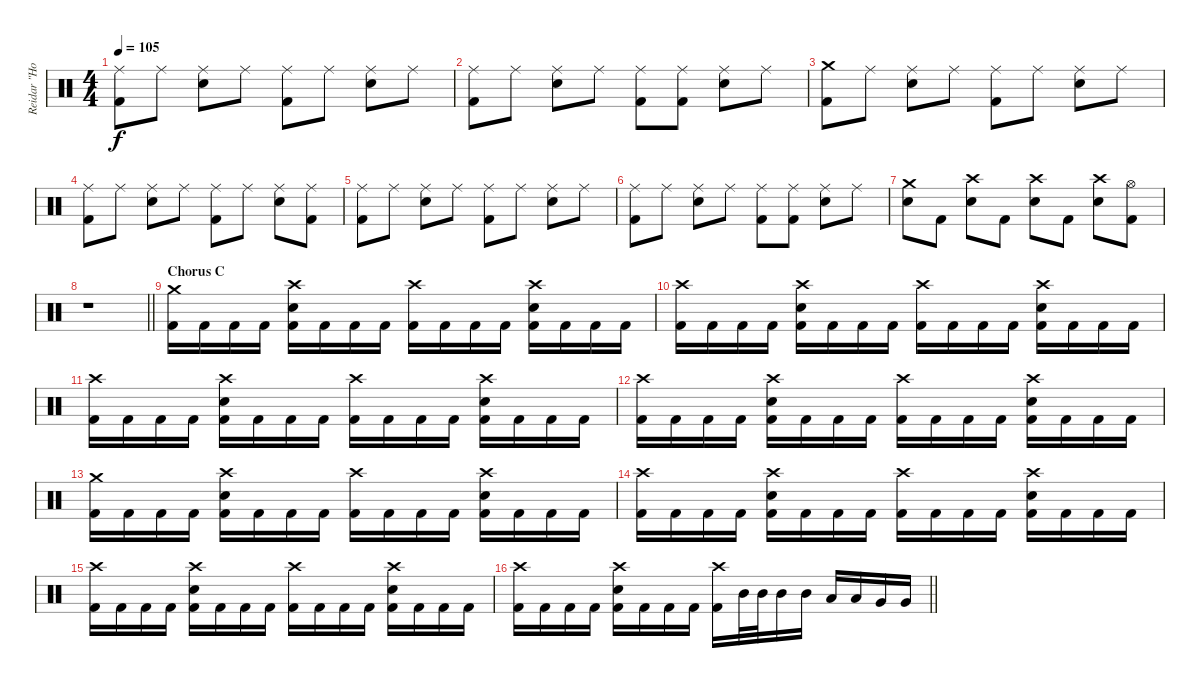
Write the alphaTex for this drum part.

\track ("Reidar \"Horgh\" Horghagen " "Reidar \"Ho") {instrument percussion}
\staff {score}
\articulation defaults
\ts (4 4)
\tempo 105
\clef neutral
\ks c
("Ride (middle)" "Kick (hit) 2").8{dy f} "Ride (middle)".8 ("Ride (middle)" "Snare (hit) 2").8 "Ride (middle)".8 ("Ride (middle)" "Kick (hit) 2").8 "Ride (middle)".8 ("Ride (middle)" "Snare (hit) 2").8 "Ride (middle)".8 |
("Ride (middle)" "Kick (hit) 2").8 "Ride (middle)".8 ("Ride (middle)" "Snare (hit) 2").8 "Ride (middle)".8 ("Ride (middle)" "Kick (hit) 2").8 ("Ride (middle)" "Kick (hit) 2").8 ("Ride (middle)" "Snare (hit) 2").8 "Ride (middle)".8 |
("Crash medium (hit)" "Kick (hit) 2").8 "Ride (middle)".8 ("Ride (middle)" "Snare (hit) 2").8 "Ride (middle)".8 ("Ride (middle)" "Kick (hit) 2").8 "Ride (middle)".8 ("Ride (middle)" "Snare (hit) 2").8 "Ride (middle)".8 |
("Ride (middle)" "Kick (hit) 2").8 "Ride (middle)".8 ("Ride (middle)" "Snare (hit) 2").8 "Ride (middle)".8 ("Ride (middle)" "Kick (hit) 2").8 "Ride (middle)".8 ("Ride (middle)" "Snare (hit) 2").8 ("Ride (middle)" "Kick (hit) 2").8 |
("Ride (middle)" "Kick (hit) 2").8 "Ride (middle)".8 ("Ride (middle)" "Snare (hit) 2").8 "Ride (middle)".8 ("Ride (middle)" "Kick (hit) 2").8 "Ride (middle)".8 ("Ride (middle)" "Snare (hit) 2").8 "Ride (middle)".8 |
("Ride (middle)" "Kick (hit) 2").8 "Ride (middle)".8 ("Ride (middle)" "Snare (hit) 2").8 "Ride (middle)".8 ("Ride (middle)" "Kick (hit) 2").8 ("Ride (middle)" "Kick (hit) 2").8 ("Ride (middle)" "Snare (hit) 2").8 "Ride (middle)".8 |
("Crash medium (hit)" "Snare (hit) 2").8 "Kick (hit) 2".8 ("Crash high (hit)" "Snare (hit) 2").8 "Kick (hit) 2".8 ("Crash high (hit)" "Snare (hit) 2").8 "Kick (hit) 2".8 ("Crash high (hit)" "Snare (hit) 2").8 ("Hi-Hat (open)" "Kick (hit) 2").8 |
\barLineRight lightlight
r.1 |
\section ("" "Chorus C")
("Crash medium (hit)" "Kick (hit) 2").16 "Kick (hit) 2".16 "Kick (hit) 2".16 "Kick (hit) 2".16 ("Crash high (hit)" "Snare (hit) 2" "Kick (hit) 2").16 "Kick (hit) 2".16 "Kick (hit) 2".16 "Kick (hit) 2".16 ("Crash high (hit)" "Kick (hit) 2").16 "Kick (hit) 2".16 "Kick (hit) 2".16 "Kick (hit) 2".16 ("Crash high (hit)" "Snare (hit) 2" "Kick (hit) 2").16 "Kick (hit) 2".16 "Kick (hit) 2".16 "Kick (hit) 2".16 |
("Crash high (hit)" "Kick (hit) 2").16 "Kick (hit) 2".16 "Kick (hit) 2".16 "Kick (hit) 2".16 ("Crash high (hit)" "Snare (hit) 2" "Kick (hit) 2").16 "Kick (hit) 2".16 "Kick (hit) 2".16 "Kick (hit) 2".16 ("Crash high (hit)" "Kick (hit) 2").16 "Kick (hit) 2".16 "Kick (hit) 2".16 "Kick (hit) 2".16 ("Crash high (hit)" "Snare (hit) 2" "Kick (hit) 2").16 "Kick (hit) 2".16 "Kick (hit) 2".16 "Kick (hit) 2".16 |
("Crash high (hit)" "Kick (hit) 2").16 "Kick (hit) 2".16 "Kick (hit) 2".16 "Kick (hit) 2".16 ("Crash high (hit)" "Snare (hit) 2" "Kick (hit) 2").16 "Kick (hit) 2".16 "Kick (hit) 2".16 "Kick (hit) 2".16 ("Crash high (hit)" "Kick (hit) 2").16 "Kick (hit) 2".16 "Kick (hit) 2".16 "Kick (hit) 2".16 ("Crash high (hit)" "Snare (hit) 2" "Kick (hit) 2").16 "Kick (hit) 2".16 "Kick (hit) 2".16 "Kick (hit) 2".16 |
("Crash high (hit)" "Kick (hit) 2").16 "Kick (hit) 2".16 "Kick (hit) 2".16 "Kick (hit) 2".16 ("Crash high (hit)" "Snare (hit) 2" "Kick (hit) 2").16 "Kick (hit) 2".16 "Kick (hit) 2".16 "Kick (hit) 2".16 ("Crash high (hit)" "Kick (hit) 2").16 "Kick (hit) 2".16 "Kick (hit) 2".16 "Kick (hit) 2".16 ("Crash high (hit)" "Snare (hit) 2" "Kick (hit) 2").16 "Kick (hit) 2".16 "Kick (hit) 2".16 "Kick (hit) 2".16 |
("Crash medium (hit)" "Kick (hit) 2").16 "Kick (hit) 2".16 "Kick (hit) 2".16 "Kick (hit) 2".16 ("Crash high (hit)" "Snare (hit) 2" "Kick (hit) 2").16 "Kick (hit) 2".16 "Kick (hit) 2".16 "Kick (hit) 2".16 ("Crash high (hit)" "Kick (hit) 2").16 "Kick (hit) 2".16 "Kick (hit) 2".16 "Kick (hit) 2".16 ("Crash high (hit)" "Snare (hit) 2" "Kick (hit) 2").16 "Kick (hit) 2".16 "Kick (hit) 2".16 "Kick (hit) 2".16 |
("Crash high (hit)" "Kick (hit) 2").16 "Kick (hit) 2".16 "Kick (hit) 2".16 "Kick (hit) 2".16 ("Crash high (hit)" "Snare (hit) 2" "Kick (hit) 2").16 "Kick (hit) 2".16 "Kick (hit) 2".16 "Kick (hit) 2".16 ("Crash high (hit)" "Kick (hit) 2").16 "Kick (hit) 2".16 "Kick (hit) 2".16 "Kick (hit) 2".16 ("Crash high (hit)" "Snare (hit) 2" "Kick (hit) 2").16 "Kick (hit) 2".16 "Kick (hit) 2".16 "Kick (hit) 2".16 |
("Crash high (hit)" "Kick (hit) 2").16 "Kick (hit) 2".16 "Kick (hit) 2".16 "Kick (hit) 2".16 ("Crash high (hit)" "Snare (hit) 2" "Kick (hit) 2").16 "Kick (hit) 2".16 "Kick (hit) 2".16 "Kick (hit) 2".16 ("Crash high (hit)" "Kick (hit) 2").16 "Kick (hit) 2".16 "Kick (hit) 2".16 "Kick (hit) 2".16 ("Crash high (hit)" "Snare (hit) 2" "Kick (hit) 2").16 "Kick (hit) 2".16 "Kick (hit) 2".16 "Kick (hit) 2".16 |
\barLineRight lightlight
("Crash high (hit)" "Kick (hit) 2").16 "Kick (hit) 2".16 "Kick (hit) 2".16 "Kick (hit) 2".16 ("Crash high (hit)" "Snare (hit) 2" "Kick (hit) 2").16 "Kick (hit) 2".16 "Kick (hit) 2".16 "Kick (hit) 2".16 ("Crash high (hit)" "Kick (hit) 2").16 "Mid Tom (hit)".32 "Mid Tom (hit)".32 "Mid Tom (hit)".16 "Mid Tom (hit)".16 "Low Tom (hit)".16 "Low Tom (hit)".16 "Very Low Tom (hit)".16 "Very Low Tom (hit)".16
